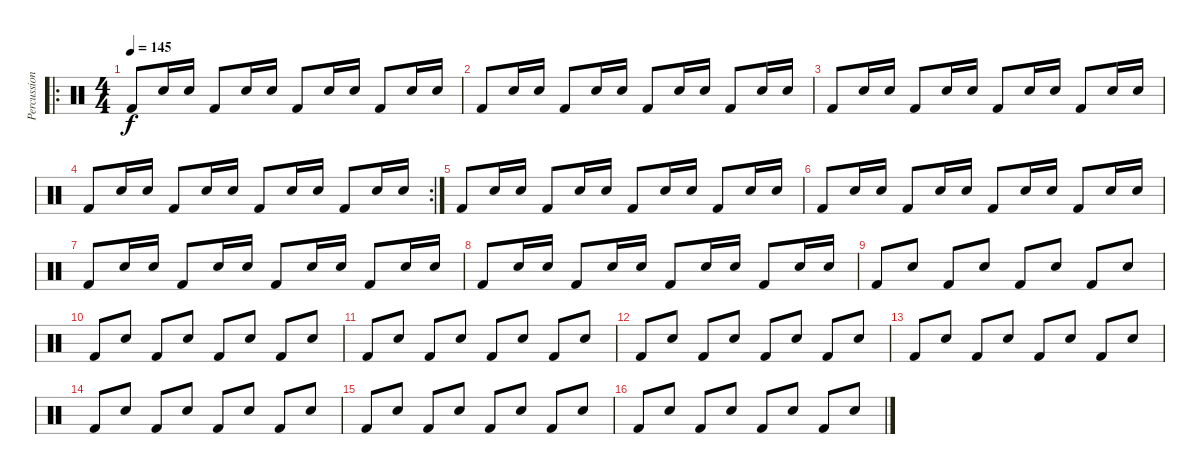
\track ("Percussions" "Percussion") {instrument percussion}
\staff {score}
\articulation defaults
\ro
\ts (4 4)
\tempo 145
\clef neutral
\ks c "Kick (hit) 2".8{dy f} "Electric Snare (hit)".16 "Electric Snare (hit)".16 "Kick (hit) 2".8 "Electric Snare (hit)".16 "Electric Snare (hit)".16 "Kick (hit) 2".8 "Electric Snare (hit)".16 "Electric Snare (hit)".16 "Kick (hit) 2".8 "Electric Snare (hit)".16 "Electric Snare (hit)".16
|
"Kick (hit) 2".8 "Electric Snare (hit)".16 "Electric Snare (hit)".16 "Kick (hit) 2".8 "Electric Snare (hit)".16 "Electric Snare (hit)".16 "Kick (hit) 2".8 "Electric Snare (hit)".16 "Electric Snare (hit)".16 "Kick (hit) 2".8 "Electric Snare (hit)".16 "Electric Snare (hit)".16 |
"Kick (hit) 2".8 "Electric Snare (hit)".16 "Electric Snare (hit)".16 "Kick (hit) 2".8 "Electric Snare (hit)".16 "Electric Snare (hit)".16 "Kick (hit) 2".8 "Electric Snare (hit)".16 "Electric Snare (hit)".16 "Kick (hit) 2".8 "Electric Snare (hit)".16 "Electric Snare (hit)".16 |
\rc 2 "Kick (hit) 2".8 "Electric Snare (hit)".16 "Electric Snare (hit)".16 "Kick (hit) 2".8 "Electric Snare (hit)".16 "Electric Snare (hit)".16 "Kick (hit) 2".8 "Electric Snare (hit)".16 "Electric Snare (hit)".16 "Kick (hit) 2".8 "Electric Snare (hit)".16 "Electric Snare (hit)".16
|
"Kick (hit) 2".8 "Electric Snare (hit)".16 "Electric Snare (hit)".16 "Kick (hit) 2".8 "Electric Snare (hit)".16 "Electric Snare (hit)".16 "Kick (hit) 2".8 "Electric Snare (hit)".16 "Electric Snare (hit)".16 "Kick (hit) 2".8 "Electric Snare (hit)".16 "Electric Snare (hit)".16 |
"Kick (hit) 2".8 "Electric Snare (hit)".16 "Electric Snare (hit)".16 "Kick (hit) 2".8 "Electric Snare (hit)".16 "Electric Snare (hit)".16 "Kick (hit) 2".8 "Electric Snare (hit)".16 "Electric Snare (hit)".16 "Kick (hit) 2".8 "Electric Snare (hit)".16 "Electric Snare (hit)".16 |
"Kick (hit) 2".8 "Electric Snare (hit)".16 "Electric Snare (hit)".16 "Kick (hit) 2".8 "Electric Snare (hit)".16 "Electric Snare (hit)".16 "Kick (hit) 2".8 "Electric Snare (hit)".16 "Electric Snare (hit)".16 "Kick (hit) 2".8 "Electric Snare (hit)".16 "Electric Snare (hit)".16 |
"Kick (hit) 2".8 "Electric Snare (hit)".16 "Electric Snare (hit)".16 "Kick (hit) 2".8 "Electric Snare (hit)".16 "Electric Snare (hit)".16 "Kick (hit) 2".8 "Electric Snare (hit)".16 "Electric Snare (hit)".16 "Kick (hit) 2".8 "Electric Snare (hit)".16 "Electric Snare (hit)".16 |
"Kick (hit) 2".8 "Electric Snare (hit)".8 "Kick (hit) 2".8 "Electric Snare (hit)".8 "Kick (hit) 2".8 "Electric Snare (hit)".8 "Kick (hit) 2".8 "Electric Snare (hit)".8 |
"Kick (hit) 2".8 "Electric Snare (hit)".8 "Kick (hit) 2".8 "Electric Snare (hit)".8 "Kick (hit) 2".8 "Electric Snare (hit)".8 "Kick (hit) 2".8 "Electric Snare (hit)".8 |
"Kick (hit) 2".8 "Electric Snare (hit)".8 "Kick (hit) 2".8 "Electric Snare (hit)".8 "Kick (hit) 2".8 "Electric Snare (hit)".8 "Kick (hit) 2".8 "Electric Snare (hit)".8 |
"Kick (hit) 2".8 "Electric Snare (hit)".8 "Kick (hit) 2".8 "Electric Snare (hit)".8 "Kick (hit) 2".8 "Electric Snare (hit)".8 "Kick (hit) 2".8 "Electric Snare (hit)".8 |
"Kick (hit) 2".8 "Electric Snare (hit)".8 "Kick (hit) 2".8 "Electric Snare (hit)".8 "Kick (hit) 2".8 "Electric Snare (hit)".8 "Kick (hit) 2".8 "Electric Snare (hit)".8 |
"Kick (hit) 2".8 "Electric Snare (hit)".8 "Kick (hit) 2".8 "Electric Snare (hit)".8 "Kick (hit) 2".8 "Electric Snare (hit)".8 "Kick (hit) 2".8 "Electric Snare (hit)".8 |
"Kick (hit) 2".8 "Electric Snare (hit)".8 "Kick (hit) 2".8 "Electric Snare (hit)".8 "Kick (hit) 2".8 "Electric Snare (hit)".8 "Kick (hit) 2".8 "Electric Snare (hit)".8 |
"Kick (hit) 2".8 "Electric Snare (hit)".8 "Kick (hit) 2".8 "Electric Snare (hit)".8 "Kick (hit) 2".8 "Electric Snare (hit)".8 "Kick (hit) 2".8 "Electric Snare (hit)".8
